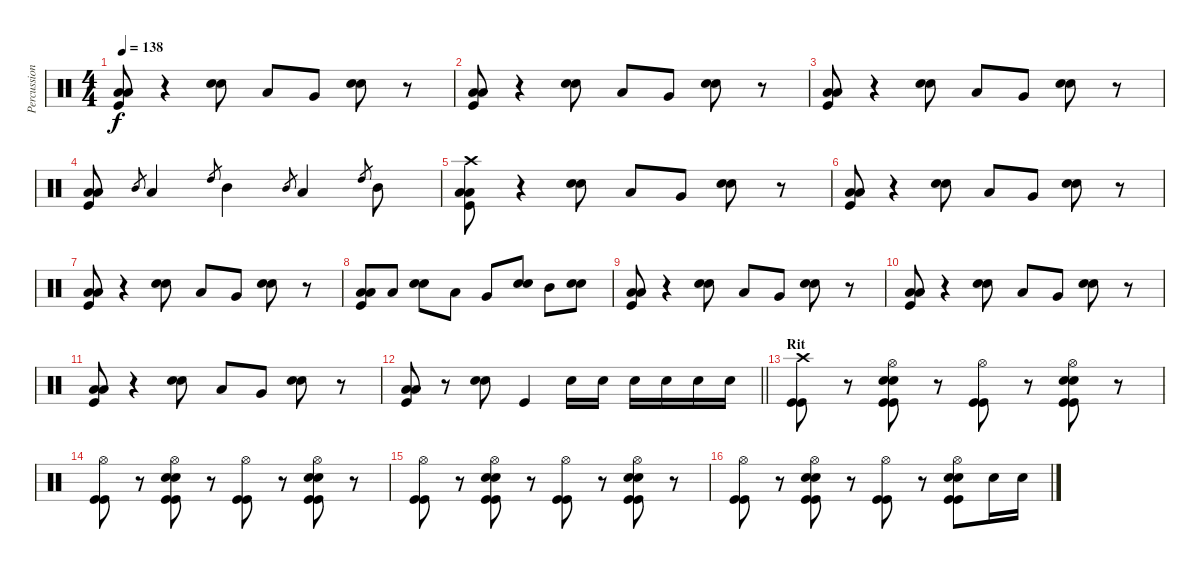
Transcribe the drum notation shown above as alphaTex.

\track ("Percussioni" "Percussion") {instrument percussion}
\staff {score}
\articulation defaults
\ts (4 4)
\tempo 138
\clef neutral
\ks c
("Low Floor Tom (hit)" "Low Floor Tom (hit)" "Kick (hit)").8{dy f} r.4 ("Snare (hit) 2" "Snare (hit) 2").8 "Low Tom (hit)".8 "Very Low Tom (hit)".8 ("Snare (hit) 2" "Snare (hit) 2").8 r.8 |
("Low Floor Tom (hit)" "Low Floor Tom (hit)" "Kick (hit)").8 r.4 ("Snare (hit) 2" "Snare (hit) 2").8 "Low Tom (hit)".8 "Very Low Tom (hit)".8 ("Snare (hit) 2" "Snare (hit) 2").8 r.8 |
("Low Floor Tom (hit)" "Low Floor Tom (hit)" "Kick (hit)").8 r.4 ("Snare (hit) 2" "Snare (hit) 2").8 "Low Tom (hit)".8 "Very Low Tom (hit)".8 ("Snare (hit) 2" "Snare (hit) 2").8 r.8 |
("Low Floor Tom (hit)" "Low Floor Tom (hit)" "Kick (hit)").8 "Mid Tom (hit)".8{gr} "Low Tom (hit)".4 "High Tom (hit)".8{gr} "Mid Tom (hit)".4 "Mid Tom (hit)".8{gr} "Low Tom (hit)".4 "High Tom (hit)".8{gr} "Mid Tom (hit)".8 |
("Low Floor Tom (hit)" "Low Floor Tom (hit)" "Crash high (hit)" "Kick (hit)").8 r.4 ("Snare (hit) 2" "Snare (hit) 2").8 "Low Tom (hit)".8 "Very Low Tom (hit)".8 ("Snare (hit) 2" "Snare (hit) 2").8 r.8 |
("Low Floor Tom (hit)" "Low Floor Tom (hit)" "Kick (hit)").8 r.4 ("Snare (hit) 2" "Snare (hit) 2").8 "Low Tom (hit)".8 "Very Low Tom (hit)".8 ("Snare (hit) 2" "Snare (hit) 2").8 r.8 |
("Low Floor Tom (hit)" "Low Floor Tom (hit)" "Kick (hit)").8 r.4 ("Snare (hit) 2" "Snare (hit) 2").8 "Low Tom (hit)".8 "Very Low Tom (hit)".8 ("Snare (hit) 2" "Snare (hit) 2").8 r.8 |
("Low Floor Tom (hit)" "Low Floor Tom (hit)" "Kick (hit)").8 "Low Tom (hit)".8 ("Snare (hit) 2" "Snare (hit) 2").8 "Low Tom (hit)".8 "Very Low Tom (hit)".8 ("Snare (hit) 2" "Snare (hit) 2").8 "Mid Tom (hit)".8 ("Snare (hit) 2" "Snare (hit) 2").8 |
("Low Floor Tom (hit)" "Low Floor Tom (hit)" "Kick (hit)").8 r.4 ("Snare (hit) 2" "Snare (hit) 2").8 "Low Tom (hit)".8 "Very Low Tom (hit)".8 ("Snare (hit) 2" "Snare (hit) 2").8 r.8 |
("Low Floor Tom (hit)" "Low Floor Tom (hit)" "Kick (hit)").8 r.4 ("Snare (hit) 2" "Snare (hit) 2").8 "Low Tom (hit)".8 "Very Low Tom (hit)".8 ("Snare (hit) 2" "Snare (hit) 2").8 r.8 |
("Low Floor Tom (hit)" "Low Floor Tom (hit)" "Kick (hit)").8 r.4 ("Snare (hit) 2" "Snare (hit) 2").8 "Low Tom (hit)".8 "Very Low Tom (hit)".8 ("Snare (hit) 2" "Snare (hit) 2").8 r.8 |
\barLineRight lightlight
("Low Floor Tom (hit)" "Low Floor Tom (hit)" "Kick (hit)").8 r.8 ("Snare (hit) 2" "Snare (hit) 2").8 "Kick (hit)".4 "Snare (hit) 2".16 "Snare (hit) 2".16 "Snare (hit) 2".16 "Snare (hit) 2".16 "Snare (hit) 2".16 "Snare (hit) 2".16 |
\section ("" "Rit")
("Crash high (hit)" "Kick (hit)" "Kick (hit)").8 r.8 ("Hi-Hat (open)" "Snare (hit) 2" "Snare (hit) 2" "Kick (hit)" "Kick (hit)").8 r.8 ("Hi-Hat (open)" "Kick (hit)" "Kick (hit)").8 r.8 ("Hi-Hat (open)" "Snare (hit) 2" "Snare (hit) 2" "Kick (hit)" "Kick (hit)").8 r.8 |
("Hi-Hat (open)" "Kick (hit)" "Kick (hit)").8 r.8 ("Hi-Hat (open)" "Snare (hit) 2" "Snare (hit) 2" "Kick (hit)" "Kick (hit)").8 r.8 ("Hi-Hat (open)" "Kick (hit)" "Kick (hit)").8 r.8 ("Hi-Hat (open)" "Snare (hit) 2" "Snare (hit) 2" "Kick (hit)" "Kick (hit)").8 r.8 |
("Hi-Hat (open)" "Kick (hit)" "Kick (hit)").8 r.8 ("Hi-Hat (open)" "Snare (hit) 2" "Snare (hit) 2" "Kick (hit)" "Kick (hit)").8 r.8 ("Hi-Hat (open)" "Kick (hit)" "Kick (hit)").8 r.8 ("Hi-Hat (open)" "Snare (hit) 2" "Snare (hit) 2" "Kick (hit)" "Kick (hit)").8 r.8 |
("Hi-Hat (open)" "Kick (hit)" "Kick (hit)").8 r.8 ("Hi-Hat (open)" "Snare (hit) 2" "Snare (hit) 2" "Kick (hit)" "Kick (hit)").8 r.8 ("Hi-Hat (open)" "Kick (hit)" "Kick (hit)").8 r.8 ("Hi-Hat (open)" "Snare (hit) 2" "Snare (hit) 2" "Kick (hit)" "Kick (hit)").8 "Snare (hit) 2".16 "Snare (hit) 2".16
